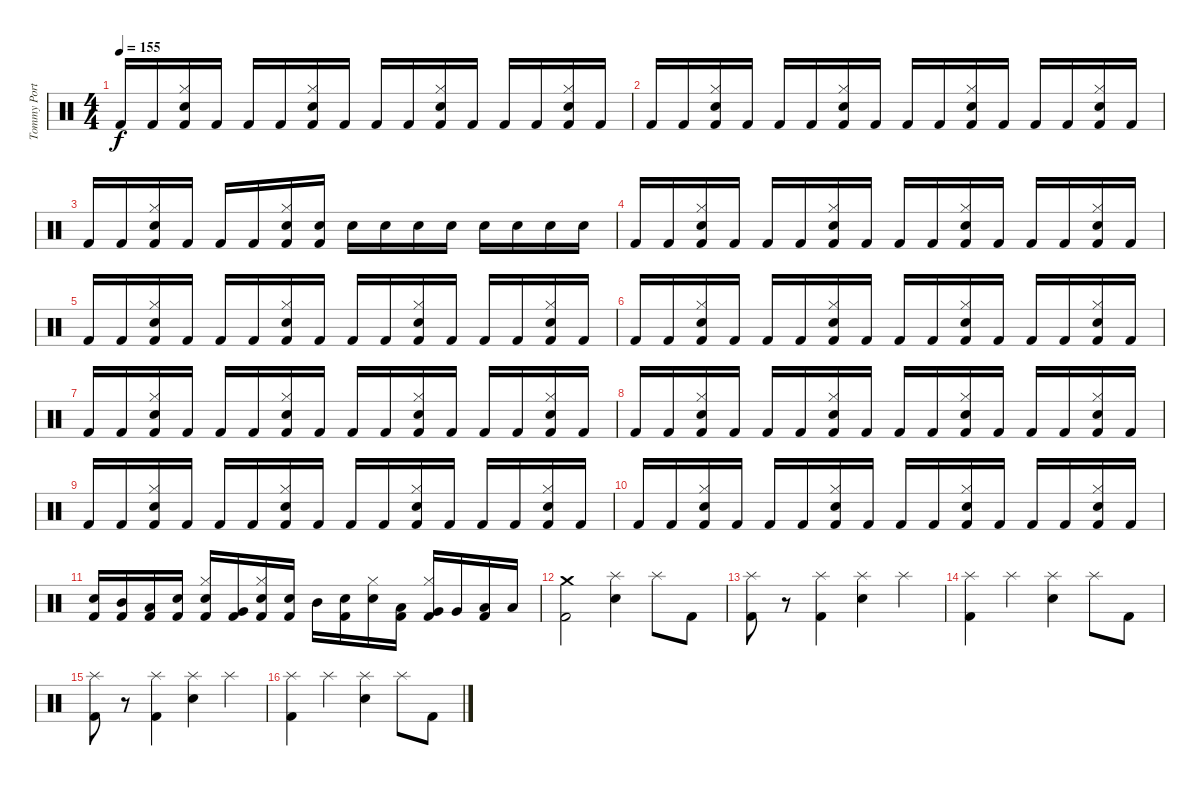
\track ("Tommy Portino" "Tommy Port") {instrument percussion}
\staff {score}
\articulation defaults
\ts (4 4)
\tempo 155
\clef neutral
\ks c "Kick (hit) 2".16{dy f} "Kick (hit) 2".16
("Hi-Hat (closed)" "Electric Snare (hit)" "Kick (hit) 2").16 "Kick (hit) 2".16 "Kick (hit) 2".16 "Kick (hit) 2".16 ("Hi-Hat (closed)" "Electric Snare (hit)" "Kick (hit) 2").16 "Kick (hit) 2".16 "Kick (hit) 2".16 "Kick (hit) 2".16 ("Hi-Hat (closed)" "Electric Snare (hit)" "Kick (hit) 2").16 "Kick (hit) 2".16 "Kick (hit) 2".16 "Kick (hit) 2".16 ("Hi-Hat (closed)" "Electric Snare (hit)" "Kick (hit) 2").16 "Kick (hit) 2".16 |
"Kick (hit) 2".16 "Kick (hit) 2".16 ("Hi-Hat (closed)" "Electric Snare (hit)" "Kick (hit) 2").16 "Kick (hit) 2".16 "Kick (hit) 2".16 "Kick (hit) 2".16 ("Hi-Hat (closed)" "Electric Snare (hit)" "Kick (hit) 2").16 "Kick (hit) 2".16 "Kick (hit) 2".16 "Kick (hit) 2".16 ("Hi-Hat (closed)" "Electric Snare (hit)" "Kick (hit) 2").16 "Kick (hit) 2".16 "Kick (hit) 2".16 "Kick (hit) 2".16 ("Hi-Hat (closed)" "Electric Snare (hit)" "Kick (hit) 2").16 "Kick (hit) 2".16 |
"Kick (hit) 2".16 "Kick (hit) 2".16 ("Hi-Hat (closed)" "Electric Snare (hit)" "Kick (hit) 2").16 "Kick (hit) 2".16 "Kick (hit) 2".16 "Kick (hit) 2".16 ("Hi-Hat (closed)" "Electric Snare (hit)" "Kick (hit) 2").16 ("Electric Snare (hit)" "Kick (hit) 2").16 "Electric Snare (hit)".16 "Electric Snare (hit)".16 "Electric Snare (hit)".16 "Electric Snare (hit)".16 "Electric Snare (hit)".16 "Electric Snare (hit)".16 "Electric Snare (hit)".16 "Electric Snare (hit)".16 |
"Kick (hit) 2".16 "Kick (hit) 2".16 ("Hi-Hat (closed)" "Electric Snare (hit)" "Kick (hit) 2").16 "Kick (hit) 2".16 "Kick (hit) 2".16 "Kick (hit) 2".16 ("Hi-Hat (closed)" "Electric Snare (hit)" "Kick (hit) 2").16 "Kick (hit) 2".16 "Kick (hit) 2".16 "Kick (hit) 2".16 ("Hi-Hat (closed)" "Electric Snare (hit)" "Kick (hit) 2").16 "Kick (hit) 2".16 "Kick (hit) 2".16 "Kick (hit) 2".16 ("Hi-Hat (closed)" "Electric Snare (hit)" "Kick (hit) 2").16 "Kick (hit) 2".16 |
"Kick (hit) 2".16 "Kick (hit) 2".16 ("Hi-Hat (closed)" "Electric Snare (hit)" "Kick (hit) 2").16 "Kick (hit) 2".16 "Kick (hit) 2".16 "Kick (hit) 2".16 ("Hi-Hat (closed)" "Electric Snare (hit)" "Kick (hit) 2").16 "Kick (hit) 2".16 "Kick (hit) 2".16 "Kick (hit) 2".16 ("Hi-Hat (closed)" "Electric Snare (hit)" "Kick (hit) 2").16 "Kick (hit) 2".16 "Kick (hit) 2".16 "Kick (hit) 2".16 ("Hi-Hat (closed)" "Electric Snare (hit)" "Kick (hit) 2").16 "Kick (hit) 2".16 |
"Kick (hit) 2".16 "Kick (hit) 2".16 ("Hi-Hat (closed)" "Electric Snare (hit)" "Kick (hit) 2").16 "Kick (hit) 2".16 "Kick (hit) 2".16 "Kick (hit) 2".16 ("Hi-Hat (closed)" "Electric Snare (hit)" "Kick (hit) 2").16 "Kick (hit) 2".16 "Kick (hit) 2".16 "Kick (hit) 2".16 ("Hi-Hat (closed)" "Electric Snare (hit)" "Kick (hit) 2").16 "Kick (hit) 2".16 "Kick (hit) 2".16 "Kick (hit) 2".16 ("Hi-Hat (closed)" "Electric Snare (hit)" "Kick (hit) 2").16 "Kick (hit) 2".16 |
"Kick (hit) 2".16 "Kick (hit) 2".16 ("Hi-Hat (closed)" "Electric Snare (hit)" "Kick (hit) 2").16 "Kick (hit) 2".16 "Kick (hit) 2".16 "Kick (hit) 2".16 ("Hi-Hat (closed)" "Electric Snare (hit)" "Kick (hit) 2").16 "Kick (hit) 2".16 "Kick (hit) 2".16 "Kick (hit) 2".16 ("Hi-Hat (closed)" "Electric Snare (hit)" "Kick (hit) 2").16 "Kick (hit) 2".16 "Kick (hit) 2".16 "Kick (hit) 2".16 ("Hi-Hat (closed)" "Electric Snare (hit)" "Kick (hit) 2").16 "Kick (hit) 2".16 |
"Kick (hit) 2".16 "Kick (hit) 2".16 ("Hi-Hat (closed)" "Electric Snare (hit)" "Kick (hit) 2").16 "Kick (hit) 2".16 "Kick (hit) 2".16 "Kick (hit) 2".16 ("Hi-Hat (closed)" "Electric Snare (hit)" "Kick (hit) 2").16 "Kick (hit) 2".16 "Kick (hit) 2".16 "Kick (hit) 2".16 ("Hi-Hat (closed)" "Electric Snare (hit)" "Kick (hit) 2").16 "Kick (hit) 2".16 "Kick (hit) 2".16 "Kick (hit) 2".16 ("Hi-Hat (closed)" "Electric Snare (hit)" "Kick (hit) 2").16 "Kick (hit) 2".16 |
"Kick (hit) 2".16 "Kick (hit) 2".16 ("Hi-Hat (closed)" "Electric Snare (hit)" "Kick (hit) 2").16 "Kick (hit) 2".16 "Kick (hit) 2".16 "Kick (hit) 2".16 ("Hi-Hat (closed)" "Electric Snare (hit)" "Kick (hit) 2").16 "Kick (hit) 2".16 "Kick (hit) 2".16 "Kick (hit) 2".16 ("Hi-Hat (closed)" "Electric Snare (hit)" "Kick (hit) 2").16 "Kick (hit) 2".16 "Kick (hit) 2".16 "Kick (hit) 2".16 ("Hi-Hat (closed)" "Electric Snare (hit)" "Kick (hit) 2").16 "Kick (hit) 2".16 |
"Kick (hit) 2".16 "Kick (hit) 2".16 ("Hi-Hat (closed)" "Electric Snare (hit)" "Kick (hit) 2").16 "Kick (hit) 2".16 "Kick (hit) 2".16 "Kick (hit) 2".16 ("Hi-Hat (closed)" "Electric Snare (hit)" "Kick (hit) 2").16 "Kick (hit) 2".16 "Kick (hit) 2".16 "Kick (hit) 2".16 ("Hi-Hat (closed)" "Electric Snare (hit)" "Kick (hit) 2").16 "Kick (hit) 2".16 "Kick (hit) 2".16 "Kick (hit) 2".16 ("Hi-Hat (closed)" "Electric Snare (hit)" "Kick (hit) 2").16 "Kick (hit) 2".16 |
("Electric Snare (hit)" "Kick (hit) 2").16 ("Mid Tom (hit)" "Kick (hit) 2").16 ("Low Tom (hit)" "Kick (hit) 2").16 ("Electric Snare (hit)" "Kick (hit) 2").16 ("Hi-Hat (closed)" "Electric Snare (hit)" "Kick (hit) 2").16 ("Very Low Tom (hit)" "Kick (hit) 2").16 ("Hi-Hat (closed)" "Electric Snare (hit)" "Kick (hit) 2").16 ("Electric Snare (hit)" "Kick (hit) 2").16 "Mid Tom (hit)".16 ("Electric Snare (hit)" "Kick (hit) 2").16 ("Hi-Hat (closed)" "Electric Snare (hit)").16 ("Low Tom (hit)" "Kick (hit) 2").16 ("Hi-Hat (closed)" "Very Low Tom (hit)" "Kick (hit) 2").16 "Very Low Tom (hit)".16 ("Low Floor Tom (hit)" "Kick (hit) 2").16 "Low Floor Tom (hit)".16 |
("Crash medium (hit)" "Kick (hit) 2").2 ("Splash (hit)" "Electric Snare (hit)").4 "Splash (hit)".8 "Kick (hit) 2".8 |
("Splash (hit)" "Kick (hit) 2").8 r.8 ("Splash (hit)" "Kick (hit) 2").4 ("Splash (hit)" "Electric Snare (hit)").4 "Splash (hit)".4 |
("Splash (hit)" "Kick (hit) 2").4 "Splash (hit)".4 ("Splash (hit)" "Electric Snare (hit)").4 "Splash (hit)".8 "Kick (hit) 2".8 |
("Splash (hit)" "Kick (hit) 2").8 r.8 ("Splash (hit)" "Kick (hit) 2").4 ("Splash (hit)" "Electric Snare (hit)").4 "Splash (hit)".4 |
("Splash (hit)" "Kick (hit) 2").4 "Splash (hit)".4 ("Splash (hit)" "Electric Snare (hit)").4 "Splash (hit)".8 "Kick (hit) 2".8
